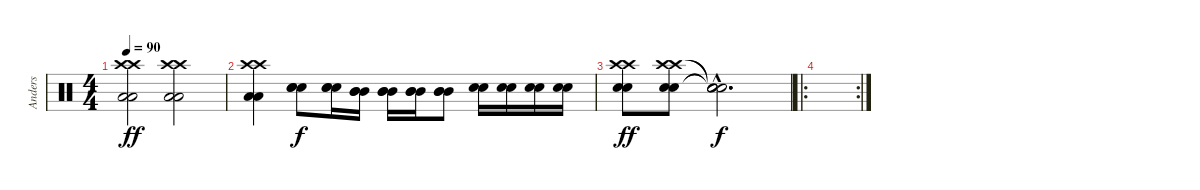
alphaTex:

\track ("Anders" "Anders") {instrument percussion}
\staff {score}
\articulation defaults
\ts (4 4)
\tempo 90
\clef neutral
\ks c
("Crash high (hit)" "Crash high (hit)" "Low Floor Tom (hit)" "Low Floor Tom (hit)").2{dy ff} ("Crash high (hit)" "Crash high (hit)" "Low Floor Tom (hit)" "Low Floor Tom (hit)").2 |
("Crash high (hit)" "Crash high (hit)" "Low Floor Tom (hit)" "Low Floor Tom (hit)").4 ("Electric Snare (hit)" "Electric Snare (hit)" "Electric Snare (hit)").8{dy f} ("Electric Snare (hit)" "Electric Snare (hit)" "Electric Snare (hit)").16 ("Mid Tom (hit)" "Mid Tom (hit)" "Mid Tom (hit)").16 ("Mid Tom (hit)" "Mid Tom (hit)" "Mid Tom (hit)").16 ("Mid Tom (hit)" "Mid Tom (hit)" "Mid Tom (hit)").16 ("Mid Tom (hit)" "Mid Tom (hit)" "Mid Tom (hit)").8 ("Electric Snare (hit)" "Electric Snare (hit)").16 ("Electric Snare (hit)" "Electric Snare (hit)").16 ("Electric Snare (hit)" "Electric Snare (hit)").16 ("Electric Snare (hit)" "Electric Snare (hit)").16 |
("Crash high (hit)" "Crash high (hit)" "Electric Snare (hit)" "Electric Snare (hit)").8{dy ff} ("Crash high (hit)" "Crash high (hit)" "Electric Snare (hit)" "Electric Snare (hit)").8 ("Snare (hit)"{hac t} "Snare (hit)"{hac t} "Snare (hit)"{hac t} "Snare (hit)"{hac t}).2{d dy f} |
\ro
\rc 2
